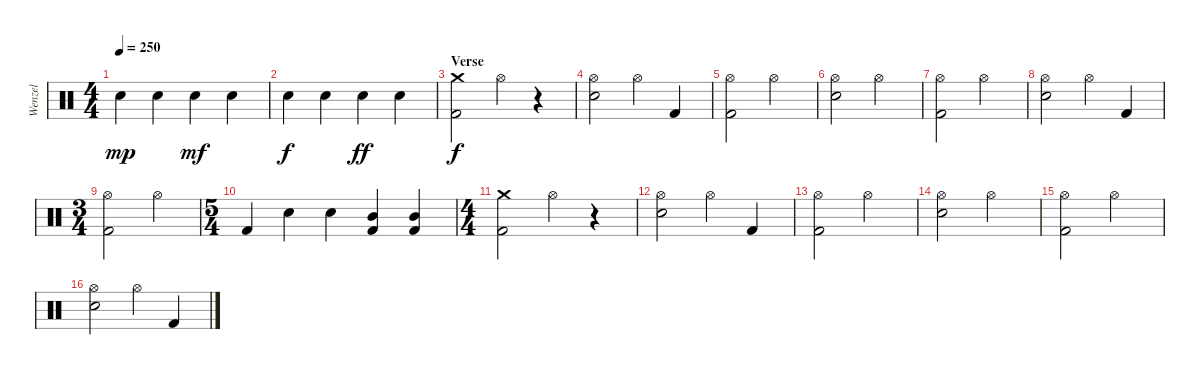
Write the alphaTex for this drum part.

\track ("Wenzel" "Wenzel") {instrument percussion}
\staff {score}
\articulation defaults
\ts (4 4)
\tempo 250
\clef neutral
\ks c "Snare (hit) 2".4{dy mp} "Snare (hit) 2".4 "Snare (hit) 2".4{dy mf} "Snare (hit) 2".4
|
"Snare (hit) 2".4{dy f} "Snare (hit) 2".4 "Snare (hit) 2".4{dy ff} "Snare (hit) 2".4 |
\section ("" "Verse")
("Crash medium (hit)" "Kick (hit) 2").2{dy f} "Hi-Hat (open)".4 r.4 |
("Hi-Hat (open)" "Snare (hit) 2").2 "Hi-Hat (open)".4 "Kick (hit) 2".4 |
("Hi-Hat (open)" "Kick (hit) 2").2 "Hi-Hat (open)".2 |
("Hi-Hat (open)" "Snare (hit) 2").2 "Hi-Hat (open)".2 |
("Hi-Hat (open)" "Kick (hit) 2").2 "Hi-Hat (open)".2 |
("Hi-Hat (open)" "Snare (hit) 2").2 "Hi-Hat (open)".4 "Kick (hit) 2".4 |
\ts (3 4)
("Hi-Hat (open)" "Kick (hit) 2").2 "Hi-Hat (open)".4 |
\ts (5 4)
"Kick (hit) 2".4 "Snare (hit) 2".4 "Snare (hit) 2".4 ("Mid Tom (hit)" "Kick (hit) 2").4 ("Mid Tom (hit)" "Kick (hit) 2").4 |
\ts (4 4)
("Crash medium (hit)" "Kick (hit) 2").2 "Hi-Hat (open)".4 r.4 |
("Hi-Hat (open)" "Snare (hit) 2").2 "Hi-Hat (open)".4 "Kick (hit) 2".4 |
("Hi-Hat (open)" "Kick (hit) 2").2 "Hi-Hat (open)".2 |
("Hi-Hat (open)" "Snare (hit) 2").2 "Hi-Hat (open)".2 |
("Hi-Hat (open)" "Kick (hit) 2").2 "Hi-Hat (open)".2 |
("Hi-Hat (open)" "Snare (hit) 2").2 "Hi-Hat (open)".4 "Kick (hit) 2".4
